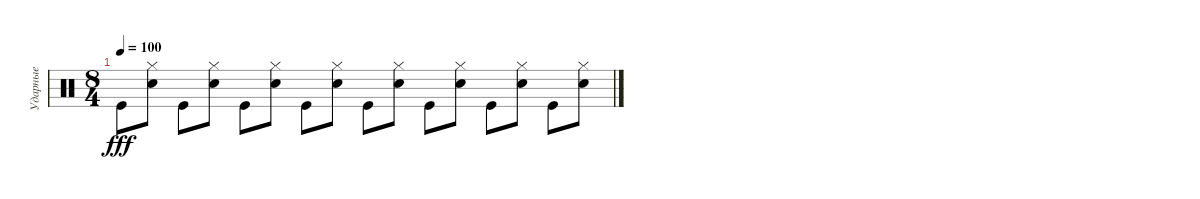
\track ("Ударные" "Ударные") {instrument percussion}
\staff {score}
\articulation defaults
\ts (8 4)
\tempo 100
\clef neutral
\ks c "Kick (hit)".8{dy fff}
("Hi-Hat (closed)" "Snare (hit) 2").8 "Kick (hit)".8 ("Hi-Hat (closed)" "Snare (hit) 2").8 "Kick (hit)".8 ("Hi-Hat (closed)" "Snare (hit) 2").8 "Kick (hit)".8 ("Hi-Hat (closed)" "Snare (hit) 2").8 "Kick (hit)".8 ("Hi-Hat (closed)" "Snare (hit) 2").8 "Kick (hit)".8 ("Hi-Hat (closed)" "Snare (hit) 2").8 "Kick (hit)".8 ("Hi-Hat (closed)" "Snare (hit) 2").8 "Kick (hit)".8 ("Hi-Hat (closed)" "Snare (hit) 2").8
